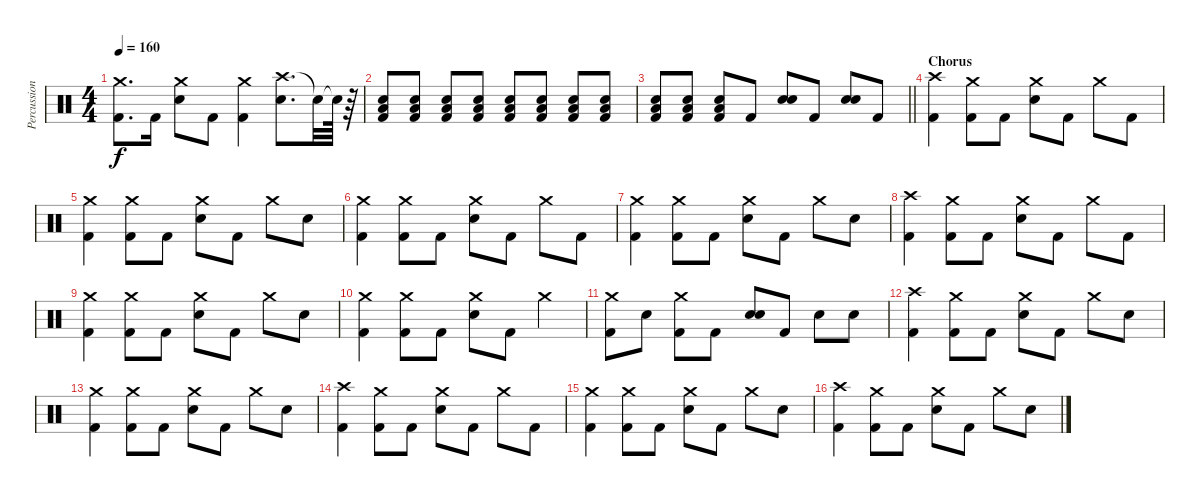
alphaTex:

\track ("Percussion" "Percussion") {instrument percussion}
\staff {score}
\articulation defaults
\ts (4 4)
\tempo 160
\clef neutral
\ks c
("Crash medium (hit)" "Kick (hit) 2").8{d dy f} "Kick (hit) 2".16 ("Crash medium (hit)" "Electric Snare (hit)").8 "Kick (hit) 2".8 ("Crash medium (hit)" "Kick (hit) 2").4 ("Crash high (hit)" "Electric Snare (hit)").8{d} "Snare (hit)"{t}.32 "Snare (hit)"{t}.64 r.64{volume 7} |
("Low Floor Tom (hit)" "Electric Snare (hit)" "Kick (hit) 2").8{volume 12} ("Low Floor Tom (hit)" "Electric Snare (hit)" "Kick (hit) 2").8 ("Low Floor Tom (hit)" "Electric Snare (hit)" "Kick (hit) 2").8 ("Low Floor Tom (hit)" "Electric Snare (hit)" "Kick (hit) 2").8 ("Low Floor Tom (hit)" "Electric Snare (hit)" "Kick (hit) 2").8 ("Low Floor Tom (hit)" "Electric Snare (hit)" "Kick (hit) 2").8 ("Low Floor Tom (hit)" "Electric Snare (hit)" "Kick (hit) 2").8 ("Low Floor Tom (hit)" "Electric Snare (hit)" "Kick (hit) 2").8 |
\barLineRight lightlight
("Low Floor Tom (hit)" "Electric Snare (hit)" "Kick (hit) 2").8 ("Low Floor Tom (hit)" "Electric Snare (hit)" "Kick (hit) 2").8 ("Low Floor Tom (hit)" "Electric Snare (hit)" "Kick (hit) 2").8 "Kick (hit) 2".8 ("Electric Snare (hit)" "Electric Snare (hit)").8 "Kick (hit) 2".8 ("Electric Snare (hit)" "Electric Snare (hit)").8 "Kick (hit) 2".8 |
\section ("" "Chorus")
("Crash high (hit)" "Kick (hit) 2").4 ("Crash medium (hit)" "Kick (hit) 2").8 "Kick (hit) 2".8 ("Crash medium (hit)" "Electric Snare (hit)").8 "Kick (hit) 2".8 "Crash medium (hit)".8 "Kick (hit) 2".8 |
("Crash medium (hit)" "Kick (hit) 2").4 ("Crash medium (hit)" "Kick (hit) 2").8 "Kick (hit) 2".8 ("Crash medium (hit)" "Electric Snare (hit)").8 "Kick (hit) 2".8 "Crash medium (hit)".8 "Electric Snare (hit)".8 |
("Crash medium (hit)" "Kick (hit) 2").4 ("Crash medium (hit)" "Kick (hit) 2").8 "Kick (hit) 2".8 ("Crash medium (hit)" "Electric Snare (hit)").8 "Kick (hit) 2".8 "Crash medium (hit)".8 "Kick (hit) 2".8 |
("Crash medium (hit)" "Kick (hit) 2").4 ("Crash medium (hit)" "Kick (hit) 2").8 "Kick (hit) 2".8 ("Crash medium (hit)" "Electric Snare (hit)").8 "Kick (hit) 2".8 "Crash medium (hit)".8 "Electric Snare (hit)".8 |
("Crash high (hit)" "Kick (hit) 2").4 ("Crash medium (hit)" "Kick (hit) 2").8 "Kick (hit) 2".8 ("Crash medium (hit)" "Electric Snare (hit)").8 "Kick (hit) 2".8 "Crash medium (hit)".8 "Kick (hit) 2".8 |
("Crash medium (hit)" "Kick (hit) 2").4 ("Crash medium (hit)" "Kick (hit) 2").8 "Kick (hit) 2".8 ("Crash medium (hit)" "Electric Snare (hit)").8 "Kick (hit) 2".8 "Crash medium (hit)".8 "Electric Snare (hit)".8 |
("Crash medium (hit)" "Kick (hit) 2").4 ("Crash medium (hit)" "Kick (hit) 2").8 "Kick (hit) 2".8 ("Crash medium (hit)" "Electric Snare (hit)").8 "Kick (hit) 2".8 "Crash medium (hit)".4 |
("Crash medium (hit)" "Kick (hit) 2").8 "Electric Snare (hit)".8 ("Crash medium (hit)" "Kick (hit) 2").8 "Kick (hit) 2".8 ("Electric Snare (hit)" "Electric Snare (hit)").8 "Kick (hit) 2".8 "Electric Snare (hit)".8 "Electric Snare (hit)".8 |
("Crash high (hit)" "Kick (hit) 2").4 ("Crash medium (hit)" "Kick (hit) 2").8 "Kick (hit) 2".8 ("Crash medium (hit)" "Electric Snare (hit)").8 "Kick (hit) 2".8 "Crash medium (hit)".8 "Electric Snare (hit)".8 |
("Crash medium (hit)" "Kick (hit) 2").4 ("Crash medium (hit)" "Kick (hit) 2").8 "Kick (hit) 2".8 ("Crash medium (hit)" "Electric Snare (hit)").8 "Kick (hit) 2".8 "Crash medium (hit)".8 "Electric Snare (hit)".8 |
("Crash high (hit)" "Kick (hit) 2").4 ("Crash medium (hit)" "Kick (hit) 2").8 "Kick (hit) 2".8 ("Crash medium (hit)" "Electric Snare (hit)").8 "Kick (hit) 2".8 "Crash medium (hit)".8 "Kick (hit) 2".8 |
("Crash medium (hit)" "Kick (hit) 2").4 ("Crash medium (hit)" "Kick (hit) 2").8 "Kick (hit) 2".8 ("Crash medium (hit)" "Electric Snare (hit)").8 "Kick (hit) 2".8 "Crash medium (hit)".8 "Electric Snare (hit)".8 |
("Crash high (hit)" "Kick (hit) 2").4 ("Crash medium (hit)" "Kick (hit) 2").8 "Kick (hit) 2".8 ("Crash medium (hit)" "Electric Snare (hit)").8 "Kick (hit) 2".8 "Crash medium (hit)".8 "Electric Snare (hit)".8
